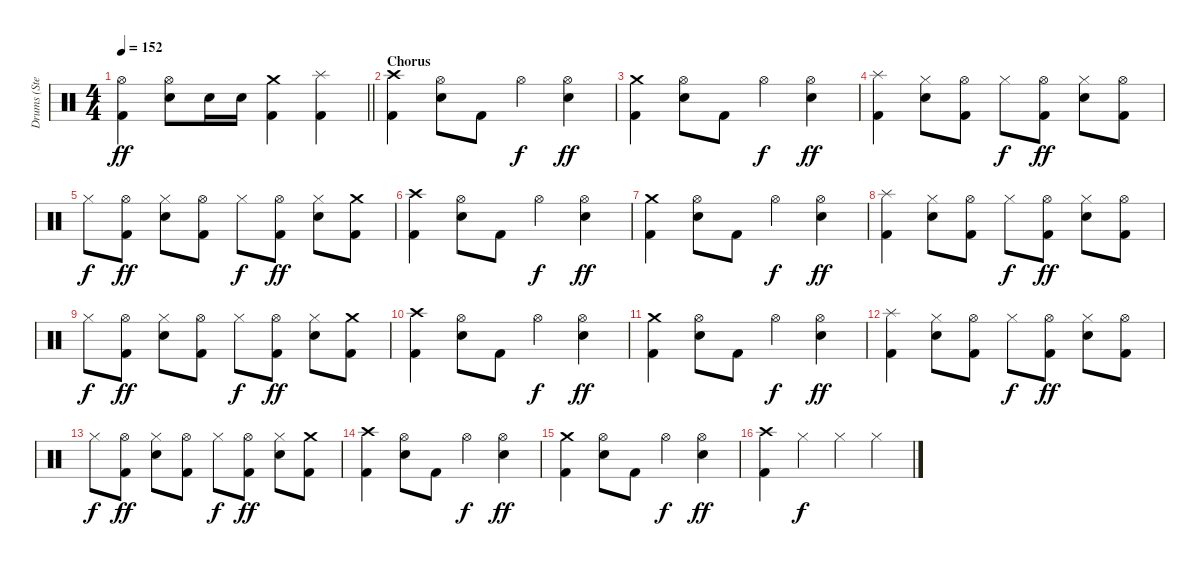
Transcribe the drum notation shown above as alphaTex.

\track ("Drums (Steven)" "Drums (Ste") {instrument percussion}
\staff {score}
\articulation defaults
\ts (4 4)
\tempo 152
\clef neutral
\barLineRight lightlight
\ks c
("Hi-Hat (open)" "Kick (hit) 2").4{dy ff} ("Hi-Hat (open)" "Snare (hit) 2").8 "Snare (hit) 2".16 "Snare (hit) 2".16 ("Crash medium (hit)" "Kick (hit) 2").4 ("Splash (hit)" "Kick (hit) 2").4 |
\section ("" "Chorus")
("Crash high (hit)" "Kick (hit) 2").4 ("Hi-Hat (open)" "Snare (hit) 2").8 "Kick (hit) 2".8 "Hi-Hat (open)".4{dy f} ("Hi-Hat (open)" "Snare (hit) 2").4{dy ff} |
("Crash medium (hit)" "Kick (hit) 2").4 ("Hi-Hat (open)" "Snare (hit) 2").8 "Kick (hit) 2".8 "Hi-Hat (open)".4{dy f} ("Hi-Hat (open)" "Snare (hit) 2").4{dy ff} |
("Splash (hit)" "Kick (hit) 2").4 ("Hi-Hat (closed)" "Snare (hit) 2").8 ("Hi-Hat (open)" "Kick (hit) 2").8 "Hi-Hat (closed)".8{dy f} ("Hi-Hat (open)" "Kick (hit) 2").8{dy ff} ("Hi-Hat (closed)" "Snare (hit) 2").8 ("Hi-Hat (open)" "Kick (hit) 2").8 |
"Hi-Hat (closed)".8{dy f} ("Hi-Hat (open)" "Kick (hit) 2").8{dy ff} ("Hi-Hat (closed)" "Snare (hit) 2").8 ("Hi-Hat (open)" "Kick (hit) 2").8 "Hi-Hat (closed)".8{dy f} ("Hi-Hat (open)" "Kick (hit) 2").8{dy ff} ("Hi-Hat (closed)" "Snare (hit) 2").8 ("Crash medium (hit)" "Kick (hit) 2").8 |
("Crash high (hit)" "Kick (hit) 2").4 ("Hi-Hat (open)" "Snare (hit) 2").8 "Kick (hit) 2".8 "Hi-Hat (open)".4{dy f} ("Hi-Hat (open)" "Snare (hit) 2").4{dy ff} |
("Crash medium (hit)" "Kick (hit) 2").4 ("Hi-Hat (open)" "Snare (hit) 2").8 "Kick (hit) 2".8 "Hi-Hat (open)".4{dy f} ("Hi-Hat (open)" "Snare (hit) 2").4{dy ff} |
("Splash (hit)" "Kick (hit) 2").4 ("Hi-Hat (closed)" "Snare (hit) 2").8 ("Hi-Hat (open)" "Kick (hit) 2").8 "Hi-Hat (closed)".8{dy f} ("Hi-Hat (open)" "Kick (hit) 2").8{dy ff} ("Hi-Hat (closed)" "Snare (hit) 2").8 ("Hi-Hat (open)" "Kick (hit) 2").8 |
"Hi-Hat (closed)".8{dy f} ("Hi-Hat (open)" "Kick (hit) 2").8{dy ff} ("Hi-Hat (closed)" "Snare (hit) 2").8 ("Hi-Hat (open)" "Kick (hit) 2").8 "Hi-Hat (closed)".8{dy f} ("Hi-Hat (open)" "Kick (hit) 2").8{dy ff} ("Hi-Hat (closed)" "Snare (hit) 2").8 ("Crash medium (hit)" "Kick (hit) 2").8 |
("Crash high (hit)" "Kick (hit) 2").4 ("Hi-Hat (open)" "Snare (hit) 2").8 "Kick (hit) 2".8 "Hi-Hat (open)".4{dy f} ("Hi-Hat (open)" "Snare (hit) 2").4{dy ff} |
("Crash medium (hit)" "Kick (hit) 2").4 ("Hi-Hat (open)" "Snare (hit) 2").8 "Kick (hit) 2".8 "Hi-Hat (open)".4{dy f} ("Hi-Hat (open)" "Snare (hit) 2").4{dy ff} |
("Splash (hit)" "Kick (hit) 2").4 ("Hi-Hat (closed)" "Snare (hit) 2").8 ("Hi-Hat (open)" "Kick (hit) 2").8 "Hi-Hat (closed)".8{dy f} ("Hi-Hat (open)" "Kick (hit) 2").8{dy ff} ("Hi-Hat (closed)" "Snare (hit) 2").8 ("Hi-Hat (open)" "Kick (hit) 2").8 |
"Hi-Hat (closed)".8{dy f} ("Hi-Hat (open)" "Kick (hit) 2").8{dy ff} ("Hi-Hat (closed)" "Snare (hit) 2").8 ("Hi-Hat (open)" "Kick (hit) 2").8 "Hi-Hat (closed)".8{dy f} ("Hi-Hat (open)" "Kick (hit) 2").8{dy ff} ("Hi-Hat (closed)" "Snare (hit) 2").8 ("Crash medium (hit)" "Kick (hit) 2").8 |
("Crash high (hit)" "Kick (hit) 2").4 ("Hi-Hat (open)" "Snare (hit) 2").8 "Kick (hit) 2".8 "Hi-Hat (open)".4{dy f} ("Hi-Hat (open)" "Snare (hit) 2").4{dy ff} |
("Crash medium (hit)" "Kick (hit) 2").4 ("Hi-Hat (open)" "Snare (hit) 2").8 "Kick (hit) 2".8 "Hi-Hat (open)".4{dy f} ("Hi-Hat (open)" "Snare (hit) 2").4{dy ff} |
("Crash high (hit)" "Kick (hit) 2").4 "Hi-Hat (closed)".4{dy f} "Hi-Hat (closed)".4 "Hi-Hat (closed)".4
